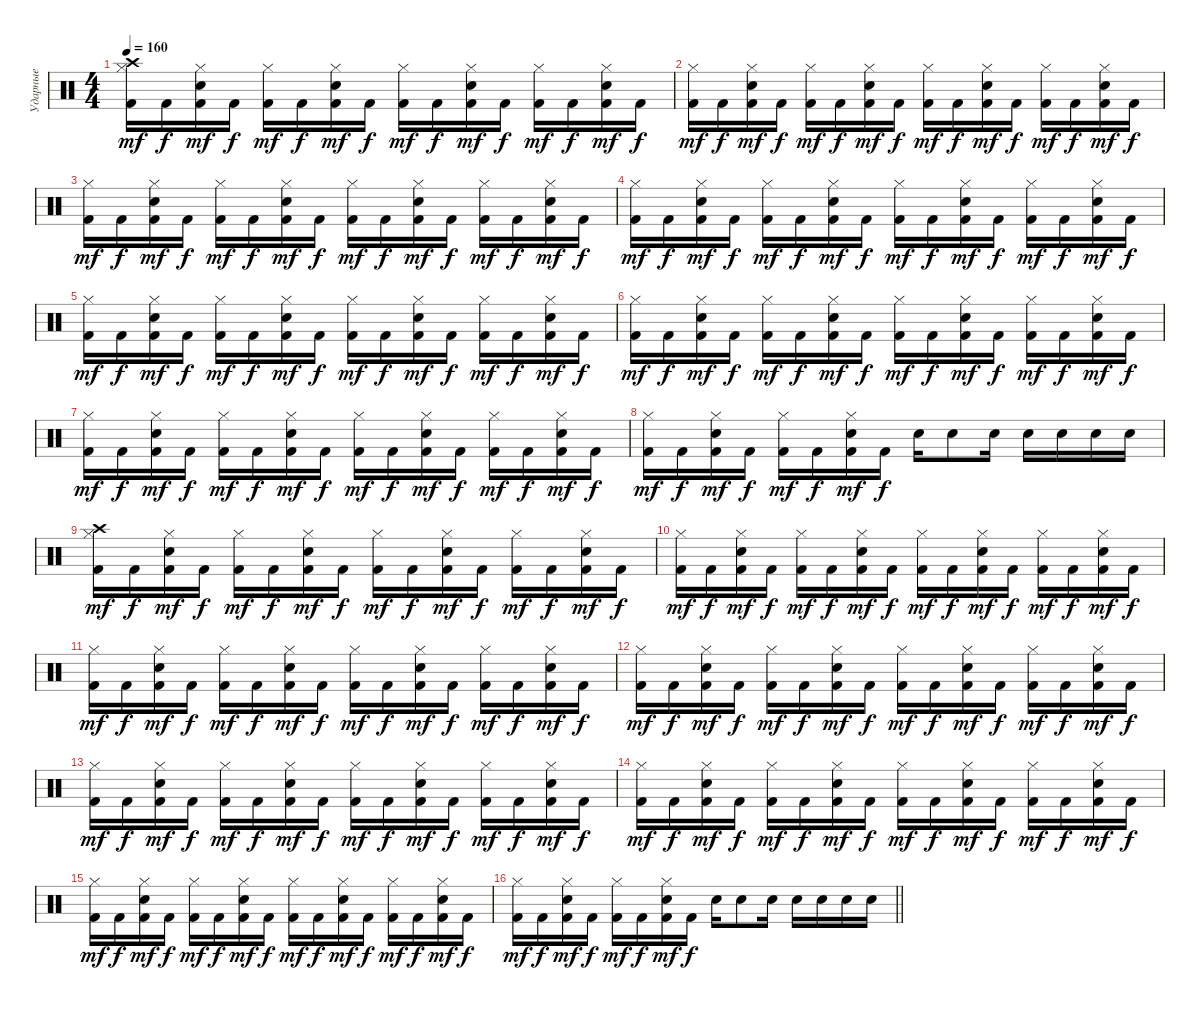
\track ("Ударные" "Ударные") {instrument percussion}
\staff {score}
\articulation defaults
\ts (4 4)
\tempo 160
\clef neutral
\ks c
("Kick (hit) 2" "Hi-Hat (closed)" "Crash high (hit)").16{dy mf} "Kick (hit) 2".16{dy f} ("Kick (hit) 2" "Snare (hit) 2" "Hi-Hat (closed)").16{dy mf} "Kick (hit) 2".16{dy f} ("Kick (hit) 2" "Hi-Hat (closed)").16{dy mf} "Kick (hit) 2".16{dy f} ("Kick (hit) 2" "Snare (hit) 2" "Hi-Hat (closed)").16{dy mf} "Kick (hit) 2".16{dy f} ("Kick (hit) 2" "Hi-Hat (closed)").16{dy mf} "Kick (hit) 2".16{dy f} ("Kick (hit) 2" "Snare (hit) 2" "Hi-Hat (closed)").16{dy mf} "Kick (hit) 2".16{dy f} ("Kick (hit) 2" "Hi-Hat (closed)").16{dy mf} "Kick (hit) 2".16{dy f} ("Kick (hit) 2" "Snare (hit) 2" "Hi-Hat (closed)").16{dy mf} "Kick (hit) 2".16{dy f} |
("Kick (hit) 2" "Hi-Hat (closed)").16{dy mf} "Kick (hit) 2".16{dy f} ("Kick (hit) 2" "Snare (hit) 2" "Hi-Hat (closed)").16{dy mf} "Kick (hit) 2".16{dy f} ("Kick (hit) 2" "Hi-Hat (closed)").16{dy mf} "Kick (hit) 2".16{dy f} ("Kick (hit) 2" "Snare (hit) 2" "Hi-Hat (closed)").16{dy mf} "Kick (hit) 2".16{dy f} ("Kick (hit) 2" "Hi-Hat (closed)").16{dy mf} "Kick (hit) 2".16{dy f} ("Kick (hit) 2" "Snare (hit) 2" "Hi-Hat (closed)").16{dy mf} "Kick (hit) 2".16{dy f} ("Kick (hit) 2" "Hi-Hat (closed)").16{dy mf} "Kick (hit) 2".16{dy f} ("Kick (hit) 2" "Snare (hit) 2" "Hi-Hat (closed)").16{dy mf} "Kick (hit) 2".16{dy f} |
("Kick (hit) 2" "Hi-Hat (closed)").16{dy mf} "Kick (hit) 2".16{dy f} ("Kick (hit) 2" "Snare (hit) 2" "Hi-Hat (closed)").16{dy mf} "Kick (hit) 2".16{dy f} ("Kick (hit) 2" "Hi-Hat (closed)").16{dy mf} "Kick (hit) 2".16{dy f} ("Kick (hit) 2" "Snare (hit) 2" "Hi-Hat (closed)").16{dy mf} "Kick (hit) 2".16{dy f} ("Kick (hit) 2" "Hi-Hat (closed)").16{dy mf} "Kick (hit) 2".16{dy f} ("Kick (hit) 2" "Snare (hit) 2" "Hi-Hat (closed)").16{dy mf} "Kick (hit) 2".16{dy f} ("Kick (hit) 2" "Hi-Hat (closed)").16{dy mf} "Kick (hit) 2".16{dy f} ("Kick (hit) 2" "Snare (hit) 2" "Hi-Hat (closed)").16{dy mf} "Kick (hit) 2".16{dy f} |
("Kick (hit) 2" "Hi-Hat (closed)").16{dy mf} "Kick (hit) 2".16{dy f} ("Kick (hit) 2" "Snare (hit) 2" "Hi-Hat (closed)").16{dy mf} "Kick (hit) 2".16{dy f} ("Kick (hit) 2" "Hi-Hat (closed)").16{dy mf} "Kick (hit) 2".16{dy f} ("Kick (hit) 2" "Snare (hit) 2" "Hi-Hat (closed)").16{dy mf} "Kick (hit) 2".16{dy f} ("Kick (hit) 2" "Hi-Hat (closed)").16{dy mf} "Kick (hit) 2".16{dy f} ("Kick (hit) 2" "Snare (hit) 2" "Hi-Hat (closed)").16{dy mf} "Kick (hit) 2".16{dy f} ("Kick (hit) 2" "Hi-Hat (closed)").16{dy mf} "Kick (hit) 2".16{dy f} ("Kick (hit) 2" "Snare (hit) 2" "Hi-Hat (closed)").16{dy mf} "Kick (hit) 2".16{dy f} |
("Kick (hit) 2" "Hi-Hat (closed)").16{dy mf} "Kick (hit) 2".16{dy f} ("Kick (hit) 2" "Snare (hit) 2" "Hi-Hat (closed)").16{dy mf} "Kick (hit) 2".16{dy f} ("Kick (hit) 2" "Hi-Hat (closed)").16{dy mf} "Kick (hit) 2".16{dy f} ("Kick (hit) 2" "Snare (hit) 2" "Hi-Hat (closed)").16{dy mf} "Kick (hit) 2".16{dy f} ("Kick (hit) 2" "Hi-Hat (closed)").16{dy mf} "Kick (hit) 2".16{dy f} ("Kick (hit) 2" "Snare (hit) 2" "Hi-Hat (closed)").16{dy mf} "Kick (hit) 2".16{dy f} ("Kick (hit) 2" "Hi-Hat (closed)").16{dy mf} "Kick (hit) 2".16{dy f} ("Kick (hit) 2" "Snare (hit) 2" "Hi-Hat (closed)").16{dy mf} "Kick (hit) 2".16{dy f} |
("Kick (hit) 2" "Hi-Hat (closed)").16{dy mf} "Kick (hit) 2".16{dy f} ("Kick (hit) 2" "Snare (hit) 2" "Hi-Hat (closed)").16{dy mf} "Kick (hit) 2".16{dy f} ("Kick (hit) 2" "Hi-Hat (closed)").16{dy mf} "Kick (hit) 2".16{dy f} ("Kick (hit) 2" "Snare (hit) 2" "Hi-Hat (closed)").16{dy mf} "Kick (hit) 2".16{dy f} ("Kick (hit) 2" "Hi-Hat (closed)").16{dy mf} "Kick (hit) 2".16{dy f} ("Kick (hit) 2" "Snare (hit) 2" "Hi-Hat (closed)").16{dy mf} "Kick (hit) 2".16{dy f} ("Kick (hit) 2" "Hi-Hat (closed)").16{dy mf} "Kick (hit) 2".16{dy f} ("Kick (hit) 2" "Snare (hit) 2" "Hi-Hat (closed)").16{dy mf} "Kick (hit) 2".16{dy f} |
("Kick (hit) 2" "Hi-Hat (closed)").16{dy mf} "Kick (hit) 2".16{dy f} ("Kick (hit) 2" "Snare (hit) 2" "Hi-Hat (closed)").16{dy mf} "Kick (hit) 2".16{dy f} ("Kick (hit) 2" "Hi-Hat (closed)").16{dy mf} "Kick (hit) 2".16{dy f} ("Kick (hit) 2" "Snare (hit) 2" "Hi-Hat (closed)").16{dy mf} "Kick (hit) 2".16{dy f} ("Kick (hit) 2" "Hi-Hat (closed)").16{dy mf} "Kick (hit) 2".16{dy f} ("Kick (hit) 2" "Snare (hit) 2" "Hi-Hat (closed)").16{dy mf} "Kick (hit) 2".16{dy f} ("Kick (hit) 2" "Hi-Hat (closed)").16{dy mf} "Kick (hit) 2".16{dy f} ("Kick (hit) 2" "Snare (hit) 2" "Hi-Hat (closed)").16{dy mf} "Kick (hit) 2".16{dy f} |
("Kick (hit) 2" "Hi-Hat (closed)").16{dy mf} "Kick (hit) 2".16{dy f} ("Kick (hit) 2" "Snare (hit) 2" "Hi-Hat (closed)").16{dy mf} "Kick (hit) 2".16{dy f} ("Kick (hit) 2" "Hi-Hat (closed)").16{dy mf} "Kick (hit) 2".16{dy f} ("Kick (hit) 2" "Snare (hit) 2" "Hi-Hat (closed)").16{dy mf} "Kick (hit) 2".16{dy f} "Snare (hit) 2".16 "Snare (hit) 2".8 "Snare (hit) 2".16 "Snare (hit) 2".16 "Snare (hit) 2".16 "Snare (hit) 2".16 "Snare (hit) 2".16 |
("Kick (hit) 2" "Hi-Hat (closed)" "Crash high (hit)").16{dy mf} "Kick (hit) 2".16{dy f} ("Kick (hit) 2" "Snare (hit) 2" "Hi-Hat (closed)").16{dy mf} "Kick (hit) 2".16{dy f} ("Kick (hit) 2" "Hi-Hat (closed)").16{dy mf} "Kick (hit) 2".16{dy f} ("Kick (hit) 2" "Snare (hit) 2" "Hi-Hat (closed)").16{dy mf} "Kick (hit) 2".16{dy f} ("Kick (hit) 2" "Hi-Hat (closed)").16{dy mf} "Kick (hit) 2".16{dy f} ("Kick (hit) 2" "Snare (hit) 2" "Hi-Hat (closed)").16{dy mf} "Kick (hit) 2".16{dy f} ("Kick (hit) 2" "Hi-Hat (closed)").16{dy mf} "Kick (hit) 2".16{dy f} ("Kick (hit) 2" "Snare (hit) 2" "Hi-Hat (closed)").16{dy mf} "Kick (hit) 2".16{dy f} |
("Kick (hit) 2" "Hi-Hat (closed)").16{dy mf} "Kick (hit) 2".16{dy f} ("Kick (hit) 2" "Snare (hit) 2" "Hi-Hat (closed)").16{dy mf} "Kick (hit) 2".16{dy f} ("Kick (hit) 2" "Hi-Hat (closed)").16{dy mf} "Kick (hit) 2".16{dy f} ("Kick (hit) 2" "Snare (hit) 2" "Hi-Hat (closed)").16{dy mf} "Kick (hit) 2".16{dy f} ("Kick (hit) 2" "Hi-Hat (closed)").16{dy mf} "Kick (hit) 2".16{dy f} ("Kick (hit) 2" "Snare (hit) 2" "Hi-Hat (closed)").16{dy mf} "Kick (hit) 2".16{dy f} ("Kick (hit) 2" "Hi-Hat (closed)").16{dy mf} "Kick (hit) 2".16{dy f} ("Kick (hit) 2" "Snare (hit) 2" "Hi-Hat (closed)").16{dy mf} "Kick (hit) 2".16{dy f} |
("Kick (hit) 2" "Hi-Hat (closed)").16{dy mf} "Kick (hit) 2".16{dy f} ("Kick (hit) 2" "Snare (hit) 2" "Hi-Hat (closed)").16{dy mf} "Kick (hit) 2".16{dy f} ("Kick (hit) 2" "Hi-Hat (closed)").16{dy mf} "Kick (hit) 2".16{dy f} ("Kick (hit) 2" "Snare (hit) 2" "Hi-Hat (closed)").16{dy mf} "Kick (hit) 2".16{dy f} ("Kick (hit) 2" "Hi-Hat (closed)").16{dy mf} "Kick (hit) 2".16{dy f} ("Kick (hit) 2" "Snare (hit) 2" "Hi-Hat (closed)").16{dy mf} "Kick (hit) 2".16{dy f} ("Kick (hit) 2" "Hi-Hat (closed)").16{dy mf} "Kick (hit) 2".16{dy f} ("Kick (hit) 2" "Snare (hit) 2" "Hi-Hat (closed)").16{dy mf} "Kick (hit) 2".16{dy f} |
("Kick (hit) 2" "Hi-Hat (closed)").16{dy mf} "Kick (hit) 2".16{dy f} ("Kick (hit) 2" "Snare (hit) 2" "Hi-Hat (closed)").16{dy mf} "Kick (hit) 2".16{dy f} ("Kick (hit) 2" "Hi-Hat (closed)").16{dy mf} "Kick (hit) 2".16{dy f} ("Kick (hit) 2" "Snare (hit) 2" "Hi-Hat (closed)").16{dy mf} "Kick (hit) 2".16{dy f} ("Kick (hit) 2" "Hi-Hat (closed)").16{dy mf} "Kick (hit) 2".16{dy f} ("Kick (hit) 2" "Snare (hit) 2" "Hi-Hat (closed)").16{dy mf} "Kick (hit) 2".16{dy f} ("Kick (hit) 2" "Hi-Hat (closed)").16{dy mf} "Kick (hit) 2".16{dy f} ("Kick (hit) 2" "Snare (hit) 2" "Hi-Hat (closed)").16{dy mf} "Kick (hit) 2".16{dy f} |
("Kick (hit) 2" "Hi-Hat (closed)").16{dy mf} "Kick (hit) 2".16{dy f} ("Kick (hit) 2" "Snare (hit) 2" "Hi-Hat (closed)").16{dy mf} "Kick (hit) 2".16{dy f} ("Kick (hit) 2" "Hi-Hat (closed)").16{dy mf} "Kick (hit) 2".16{dy f} ("Kick (hit) 2" "Snare (hit) 2" "Hi-Hat (closed)").16{dy mf} "Kick (hit) 2".16{dy f} ("Kick (hit) 2" "Hi-Hat (closed)").16{dy mf} "Kick (hit) 2".16{dy f} ("Kick (hit) 2" "Snare (hit) 2" "Hi-Hat (closed)").16{dy mf} "Kick (hit) 2".16{dy f} ("Kick (hit) 2" "Hi-Hat (closed)").16{dy mf} "Kick (hit) 2".16{dy f} ("Kick (hit) 2" "Snare (hit) 2" "Hi-Hat (closed)").16{dy mf} "Kick (hit) 2".16{dy f} |
("Kick (hit) 2" "Hi-Hat (closed)").16{dy mf} "Kick (hit) 2".16{dy f} ("Kick (hit) 2" "Snare (hit) 2" "Hi-Hat (closed)").16{dy mf} "Kick (hit) 2".16{dy f} ("Kick (hit) 2" "Hi-Hat (closed)").16{dy mf} "Kick (hit) 2".16{dy f} ("Kick (hit) 2" "Snare (hit) 2" "Hi-Hat (closed)").16{dy mf} "Kick (hit) 2".16{dy f} ("Kick (hit) 2" "Hi-Hat (closed)").16{dy mf} "Kick (hit) 2".16{dy f} ("Kick (hit) 2" "Snare (hit) 2" "Hi-Hat (closed)").16{dy mf} "Kick (hit) 2".16{dy f} ("Kick (hit) 2" "Hi-Hat (closed)").16{dy mf} "Kick (hit) 2".16{dy f} ("Kick (hit) 2" "Snare (hit) 2" "Hi-Hat (closed)").16{dy mf} "Kick (hit) 2".16{dy f} |
("Kick (hit) 2" "Hi-Hat (closed)").16{dy mf} "Kick (hit) 2".16{dy f} ("Kick (hit) 2" "Snare (hit) 2" "Hi-Hat (closed)").16{dy mf} "Kick (hit) 2".16{dy f} ("Kick (hit) 2" "Hi-Hat (closed)").16{dy mf} "Kick (hit) 2".16{dy f} ("Kick (hit) 2" "Snare (hit) 2" "Hi-Hat (closed)").16{dy mf} "Kick (hit) 2".16{dy f} ("Kick (hit) 2" "Hi-Hat (closed)").16{dy mf} "Kick (hit) 2".16{dy f} ("Kick (hit) 2" "Snare (hit) 2" "Hi-Hat (closed)").16{dy mf} "Kick (hit) 2".16{dy f} ("Kick (hit) 2" "Hi-Hat (closed)").16{dy mf} "Kick (hit) 2".16{dy f} ("Kick (hit) 2" "Snare (hit) 2" "Hi-Hat (closed)").16{dy mf} "Kick (hit) 2".16{dy f} |
\barLineRight lightlight
("Kick (hit) 2" "Hi-Hat (closed)").16{dy mf} "Kick (hit) 2".16{dy f} ("Kick (hit) 2" "Snare (hit) 2" "Hi-Hat (closed)").16{dy mf} "Kick (hit) 2".16{dy f} ("Kick (hit) 2" "Hi-Hat (closed)").16{dy mf} "Kick (hit) 2".16{dy f} ("Kick (hit) 2" "Snare (hit) 2" "Hi-Hat (closed)").16{dy mf} "Kick (hit) 2".16{dy f} "Snare (hit) 2".16 "Snare (hit) 2".8 "Snare (hit) 2".16 "Snare (hit) 2".16 "Snare (hit) 2".16 "Snare (hit) 2".16 "Snare (hit) 2".16
